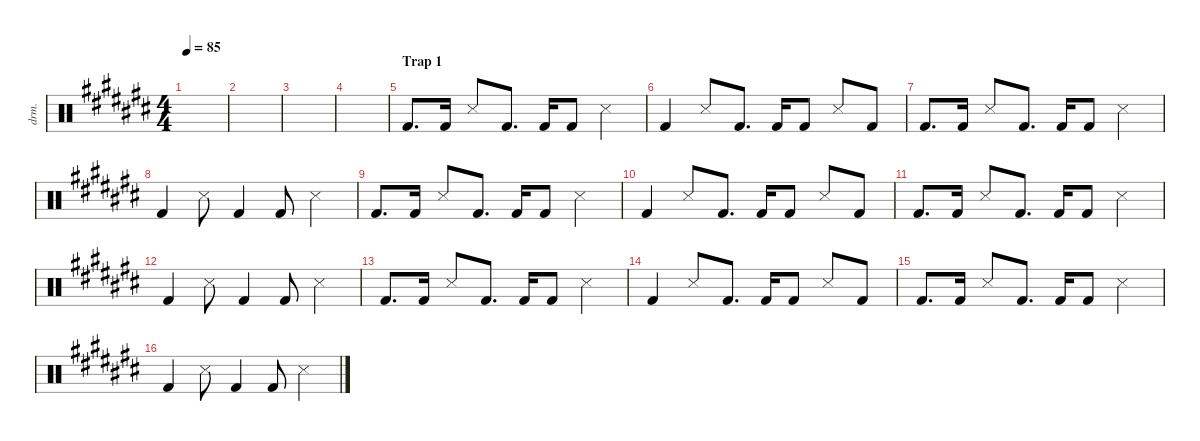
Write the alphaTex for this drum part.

\defaultSystemsLayout 4
\hideDynamics
\bracketExtendMode nobrackets
\otherSystemsTrackNameOrientation horizontal
\track ("Drumkit" "drm.") {instrument percussion}
\staff {score}
\articulation defaults
\ts (4 4)
\tempo 85
\clef neutral
\ks a#minor
|
|
|
|
\section ("" "Trap 1")
"Kick (hit) 2"{acc forcenatural}.8{d} "Kick (hit) 2"{acc forcenatural}.16 "Snare (side stick) 3"{acc forcenatural}.8 "Kick (hit) 2"{acc forcenatural}.8{d} "Kick (hit) 2"{acc forcenatural}.16 "Kick (hit) 2"{acc forcenatural}.8 "Snare (side stick) 3"{acc forcenatural}.4 |
"Kick (hit) 2"{acc forcenatural}.4 "Snare (side stick) 3"{acc forcenatural}.8 "Kick (hit) 2"{acc forcenatural}.8{d} "Kick (hit) 2"{acc forcenatural}.16 "Kick (hit) 2"{acc forcenatural}.8 "Snare (side stick) 3"{acc forcenatural}.8 "Kick (hit) 2"{acc forcenatural}.8 |
"Kick (hit) 2"{acc forcenatural}.8{d} "Kick (hit) 2"{acc forcenatural}.16 "Snare (side stick) 3"{acc forcenatural}.8 "Kick (hit) 2"{acc forcenatural}.8{d} "Kick (hit) 2"{acc forcenatural}.16 "Kick (hit) 2"{acc forcenatural}.8 "Snare (side stick) 3"{acc forcenatural}.4 |
"Kick (hit) 2"{acc forcenatural}.4 "Snare (side stick) 3"{acc forcenatural}.8 "Kick (hit) 2"{acc forcenatural}.4 "Kick (hit) 2"{acc forcenatural}.8 "Snare (side stick) 3"{acc forcenatural}.4 |
"Kick (hit) 2"{acc forcenatural}.8{d} "Kick (hit) 2"{acc forcenatural}.16 "Snare (side stick) 3"{acc forcenatural}.8 "Kick (hit) 2"{acc forcenatural}.8{d} "Kick (hit) 2"{acc forcenatural}.16 "Kick (hit) 2"{acc forcenatural}.8 "Snare (side stick) 3"{acc forcenatural}.4 |
"Kick (hit) 2"{acc forcenatural}.4 "Snare (side stick) 3"{acc forcenatural}.8 "Kick (hit) 2"{acc forcenatural}.8{d} "Kick (hit) 2"{acc forcenatural}.16 "Kick (hit) 2"{acc forcenatural}.8 "Snare (side stick) 3"{acc forcenatural}.8 "Kick (hit) 2"{acc forcenatural}.8 |
"Kick (hit) 2"{acc forcenatural}.8{d} "Kick (hit) 2"{acc forcenatural}.16 "Snare (side stick) 3"{acc forcenatural}.8 "Kick (hit) 2"{acc forcenatural}.8{d} "Kick (hit) 2"{acc forcenatural}.16 "Kick (hit) 2"{acc forcenatural}.8 "Snare (side stick) 3"{acc forcenatural}.4 |
"Kick (hit) 2"{acc forcenatural}.4 "Snare (side stick) 3"{acc forcenatural}.8 "Kick (hit) 2"{acc forcenatural}.4 "Kick (hit) 2"{acc forcenatural}.8 "Snare (side stick) 3"{acc forcenatural}.4 |
"Kick (hit) 2"{acc forcenatural}.8{d} "Kick (hit) 2"{acc forcenatural}.16 "Snare (side stick) 3"{acc forcenatural}.8 "Kick (hit) 2"{acc forcenatural}.8{d} "Kick (hit) 2"{acc forcenatural}.16 "Kick (hit) 2"{acc forcenatural}.8 "Snare (side stick) 3"{acc forcenatural}.4 |
"Kick (hit) 2"{acc forcenatural}.4 "Snare (side stick) 3"{acc forcenatural}.8 "Kick (hit) 2"{acc forcenatural}.8{d} "Kick (hit) 2"{acc forcenatural}.16 "Kick (hit) 2"{acc forcenatural}.8 "Snare (side stick) 3"{acc forcenatural}.8 "Kick (hit) 2"{acc forcenatural}.8 |
"Kick (hit) 2"{acc forcenatural}.8{d} "Kick (hit) 2"{acc forcenatural}.16 "Snare (side stick) 3"{acc forcenatural}.8 "Kick (hit) 2"{acc forcenatural}.8{d} "Kick (hit) 2"{acc forcenatural}.16 "Kick (hit) 2"{acc forcenatural}.8 "Snare (side stick) 3"{acc forcenatural}.4 |
"Kick (hit) 2"{acc forcenatural}.4 "Snare (side stick) 3"{acc forcenatural}.8 "Kick (hit) 2"{acc forcenatural}.4 "Kick (hit) 2"{acc forcenatural}.8 "Snare (side stick) 3"{acc forcenatural}.4
